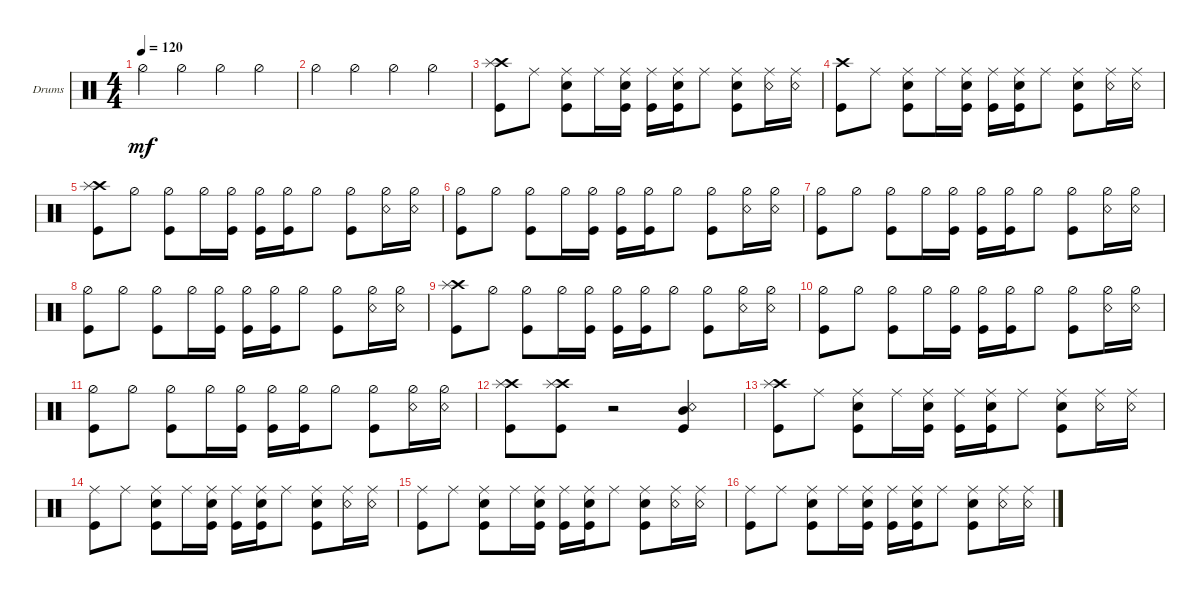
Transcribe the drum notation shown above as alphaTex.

\defaultSystemsLayout 4
\bracketExtendMode groupsimilarinstruments
\firstSystemTrackNameOrientation horizontal
\otherSystemsTrackNameOrientation horizontal
\track ("Нюта" "Drums") {instrument percussion}
\staff {score}
\articulation defaults
\ts (4 4)
\tempo 120
\clef neutral
\scale
0.474178
\ks c "Hi-Hat (half)".4{dy mf} "Hi-Hat (half)".4 "Hi-Hat (half)".4 "Hi-Hat (half)".4
|
\scale
0.262911 "Hi-Hat (half)".4 "Hi-Hat (half)".4 "Hi-Hat (half)".4 "Hi-Hat (half)".4 |
\scale
0.262911 ("Kick (hit)" "Crash high (hit)" "Splash (hit)").8 "Ride (middle)".8 ("Ride (middle)" "Kick (hit)" "Snare (hit) 2").8 "Ride (middle)".16 ("Ride (middle)" "Kick (hit)" "Snare (hit) 2").16 ("Ride (middle)" "Kick (hit)").16 ("Ride (middle)" "Kick (hit)" "Snare (hit) 2").16 "Ride (middle)".8 ("Snare (hit) 2" "Ride (middle)" "Kick (hit)").8 ("Snare (rim shot)" "Ride (middle)").16 ("Snare (rim shot)" "Ride (middle)").16 |
\scale
0.333333 ("Crash high (hit)" "Kick (hit)").8 "Ride (middle)".8 ("Ride (middle)" "Kick (hit)" "Snare (hit) 2").8 "Ride (middle)".16 ("Ride (middle)" "Kick (hit)" "Snare (hit) 2").16 ("Ride (middle)" "Kick (hit)").16 ("Ride (middle)" "Kick (hit)" "Snare (hit) 2").16 "Ride (middle)".8 ("Snare (hit) 2" "Ride (middle)" "Kick (hit)").8 ("Snare (rim shot)" "Ride (middle)").16 ("Snare (rim shot)" "Ride (middle)").16 |
\scale
0.333333 ("Crash high (hit)" "Kick (hit)" "Splash (hit)").8 "Hi-Hat (half)".8 ("Kick (hit)" "Hi-Hat (half)").8 "Hi-Hat (half)".16 ("Kick (hit)" "Hi-Hat (half)").16 ("Kick (hit)" "Hi-Hat (half)").16 ("Kick (hit)" "Hi-Hat (half)").16 "Hi-Hat (half)".8 ("Kick (hit)" "Hi-Hat (half)").8 ("Snare (rim shot)" "Hi-Hat (half)").16 ("Snare (rim shot)" "Hi-Hat (half)").16 |
\scale
0.333333 ("Kick (hit)" "Hi-Hat (half)").8 "Hi-Hat (half)".8 ("Kick (hit)" "Hi-Hat (half)").8 "Hi-Hat (half)".16 ("Kick (hit)" "Hi-Hat (half)").16 ("Kick (hit)" "Hi-Hat (half)").16 ("Kick (hit)" "Hi-Hat (half)").16 "Hi-Hat (half)".8 ("Kick (hit)" "Hi-Hat (half)").8 ("Snare (rim shot)" "Hi-Hat (half)").16 ("Snare (rim shot)" "Hi-Hat (half)").16 |
\scale
0.333333 ("Kick (hit)" "Hi-Hat (half)").8 "Hi-Hat (half)".8 ("Kick (hit)" "Hi-Hat (half)").8 "Hi-Hat (half)".16 ("Kick (hit)" "Hi-Hat (half)").16 ("Kick (hit)" "Hi-Hat (half)").16 ("Kick (hit)" "Hi-Hat (half)").16 "Hi-Hat (half)".8 ("Kick (hit)" "Hi-Hat (half)").8 ("Snare (rim shot)" "Hi-Hat (half)").16 ("Snare (rim shot)" "Hi-Hat (half)").16 |
\scale
0.333333 ("Kick (hit)" "Hi-Hat (half)").8 "Hi-Hat (half)".8 ("Kick (hit)" "Hi-Hat (half)").8 "Hi-Hat (half)".16 ("Kick (hit)" "Hi-Hat (half)").16 ("Kick (hit)" "Hi-Hat (half)").16 ("Kick (hit)" "Hi-Hat (half)").16 "Hi-Hat (half)".8 ("Kick (hit)" "Hi-Hat (half)").8 ("Snare (rim shot)" "Hi-Hat (half)").16 ("Snare (rim shot)" "Hi-Hat (half)").16 |
\scale
0.333333 ("Crash high (hit)" "Kick (hit)" "Splash (hit)").8 "Hi-Hat (half)".8 ("Kick (hit)" "Hi-Hat (half)").8 "Hi-Hat (half)".16 ("Kick (hit)" "Hi-Hat (half)").16 ("Kick (hit)" "Hi-Hat (half)").16 ("Kick (hit)" "Hi-Hat (half)").16 "Hi-Hat (half)".8 ("Kick (hit)" "Hi-Hat (half)").8 ("Snare (rim shot)" "Hi-Hat (half)").16 ("Snare (rim shot)" "Hi-Hat (half)").16 |
\scale
0.333333 ("Kick (hit)" "Hi-Hat (half)").8 "Hi-Hat (half)".8 ("Kick (hit)" "Hi-Hat (half)").8 "Hi-Hat (half)".16 ("Kick (hit)" "Hi-Hat (half)").16 ("Kick (hit)" "Hi-Hat (half)").16 ("Kick (hit)" "Hi-Hat (half)").16 "Hi-Hat (half)".8 ("Kick (hit)" "Hi-Hat (half)").8 ("Snare (rim shot)" "Hi-Hat (half)").16 ("Snare (rim shot)" "Hi-Hat (half)").16 |
\scale
0.333333 ("Kick (hit)" "Hi-Hat (half)").8 "Hi-Hat (half)".8 ("Kick (hit)" "Hi-Hat (half)").8 "Hi-Hat (half)".16 ("Kick (hit)" "Hi-Hat (half)").16 ("Kick (hit)" "Hi-Hat (half)").16 ("Kick (hit)" "Hi-Hat (half)").16 "Hi-Hat (half)".8 ("Kick (hit)" "Hi-Hat (half)").8 ("Snare (rim shot)" "Hi-Hat (half)").16 ("Snare (rim shot)" "Hi-Hat (half)").16 |
\scale
0.333333 ("Kick (hit)" "Crash high (hit)" "Splash (hit)").8 ("Kick (hit)" "Crash high (hit)" "Splash (hit)").8 r.2 ("Mid Tom (hit)" "Kick (hit)" "Snare (rim shot)").4 |
\scale
0.333333 ("Crash high (hit)" "Kick (hit)" "Splash (hit)").8 "Ride (middle)".8 ("Ride (middle)" "Kick (hit)" "Snare (hit) 2").8 "Ride (middle)".16 ("Ride (middle)" "Kick (hit)" "Snare (hit) 2").16 ("Ride (middle)" "Kick (hit)").16 ("Ride (middle)" "Kick (hit)" "Snare (hit) 2").16 "Ride (middle)".8 ("Snare (hit) 2" "Ride (middle)" "Kick (hit)").8 ("Snare (rim shot)" "Ride (middle)").16 ("Snare (rim shot)" "Ride (middle)").16 |
\scale
0.333333 ("Kick (hit)" "Ride (middle)").8 "Ride (middle)".8 ("Ride (middle)" "Kick (hit)" "Snare (hit) 2").8 "Ride (middle)".16 ("Ride (middle)" "Kick (hit)" "Snare (hit) 2").16 ("Ride (middle)" "Kick (hit)").16 ("Ride (middle)" "Kick (hit)" "Snare (hit) 2").16 "Ride (middle)".8 ("Snare (hit) 2" "Ride (middle)" "Kick (hit)").8 ("Snare (rim shot)" "Ride (middle)").16 ("Snare (rim shot)" "Ride (middle)").16 |
\scale
0.333333 ("Kick (hit)" "Ride (middle)").8 "Ride (middle)".8 ("Ride (middle)" "Kick (hit)" "Snare (hit) 2").8 "Ride (middle)".16 ("Ride (middle)" "Kick (hit)" "Snare (hit) 2").16 ("Ride (middle)" "Kick (hit)").16 ("Ride (middle)" "Kick (hit)" "Snare (hit) 2").16 "Ride (middle)".8 ("Snare (hit) 2" "Ride (middle)" "Kick (hit)").8 ("Snare (rim shot)" "Ride (middle)").16 ("Snare (rim shot)" "Ride (middle)").16 |
\scale
0.333333 ("Kick (hit)" "Ride (middle)").8 "Ride (middle)".8 ("Ride (middle)" "Kick (hit)" "Snare (hit) 2").8 "Ride (middle)".16 ("Ride (middle)" "Kick (hit)" "Snare (hit) 2").16 ("Ride (middle)" "Kick (hit)").16 ("Ride (middle)" "Kick (hit)" "Snare (hit) 2").16 "Ride (middle)".8 ("Snare (hit) 2" "Ride (middle)" "Kick (hit)").8 ("Snare (rim shot)" "Ride (middle)").16 ("Snare (rim shot)" "Ride (middle)").16
